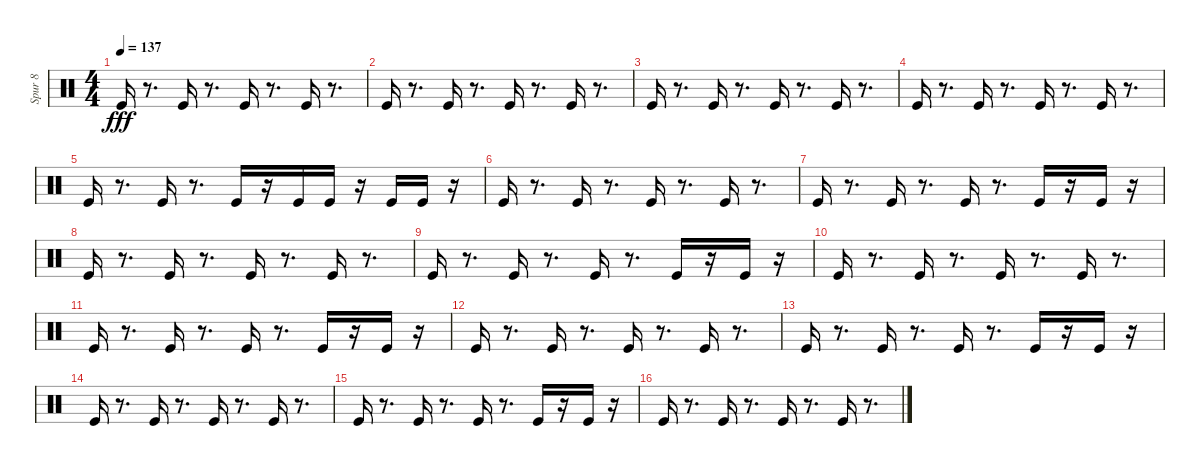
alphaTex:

\track ("Spur 8" "Spur 8") {instrument percussion}
\staff {score}
\articulation defaults
\ts (4 4)
\tempo 137
\clef neutral
\ks c "Kick (hit)".16{dy fff}
r.8{d} "Kick (hit)".16 r.8{d} "Kick (hit)".16 r.8{d} "Kick (hit)".16 r.8{d} |
"Kick (hit)".16 r.8{d} "Kick (hit)".16 r.8{d} "Kick (hit)".16 r.8{d} "Kick (hit)".16 r.8{d} |
"Kick (hit)".16 r.8{d} "Kick (hit)".16 r.8{d} "Kick (hit)".16 r.8{d} "Kick (hit)".16 r.8{d} |
"Kick (hit)".16 r.8{d} "Kick (hit)".16 r.8{d} "Kick (hit)".16 r.8{d} "Kick (hit)".16 r.8{d} |
"Kick (hit)".16 r.8{d} "Kick (hit)".16 r.8{d} "Kick (hit)".16 r.16 "Kick (hit)".16 "Kick (hit)".16 r.16 "Kick (hit)".16 "Kick (hit)".16 r.16 |
"Kick (hit)".16 r.8{d} "Kick (hit)".16 r.8{d} "Kick (hit)".16 r.8{d} "Kick (hit)".16 r.8{d} |
"Kick (hit)".16 r.8{d} "Kick (hit)".16 r.8{d} "Kick (hit)".16 r.8{d} "Kick (hit)".16 r.16 "Kick (hit)".16 r.16 |
"Kick (hit)".16 r.8{d} "Kick (hit)".16 r.8{d} "Kick (hit)".16 r.8{d} "Kick (hit)".16 r.8{d} |
"Kick (hit)".16 r.8{d} "Kick (hit)".16 r.8{d} "Kick (hit)".16 r.8{d} "Kick (hit)".16 r.16 "Kick (hit)".16 r.16 |
"Kick (hit)".16 r.8{d} "Kick (hit)".16 r.8{d} "Kick (hit)".16 r.8{d} "Kick (hit)".16 r.8{d} |
"Kick (hit)".16 r.8{d} "Kick (hit)".16 r.8{d} "Kick (hit)".16 r.8{d} "Kick (hit)".16 r.16 "Kick (hit)".16 r.16 |
"Kick (hit)".16 r.8{d} "Kick (hit)".16 r.8{d} "Kick (hit)".16 r.8{d} "Kick (hit)".16 r.8{d} |
"Kick (hit)".16 r.8{d} "Kick (hit)".16 r.8{d} "Kick (hit)".16 r.8{d} "Kick (hit)".16 r.16 "Kick (hit)".16 r.16 |
"Kick (hit)".16 r.8{d} "Kick (hit)".16 r.8{d} "Kick (hit)".16 r.8{d} "Kick (hit)".16 r.8{d} |
"Kick (hit)".16 r.8{d} "Kick (hit)".16 r.8{d} "Kick (hit)".16 r.8{d} "Kick (hit)".16 r.16 "Kick (hit)".16 r.16 |
"Kick (hit)".16 r.8{d} "Kick (hit)".16 r.8{d} "Kick (hit)".16 r.8{d} "Kick (hit)".16 r.8{d}
